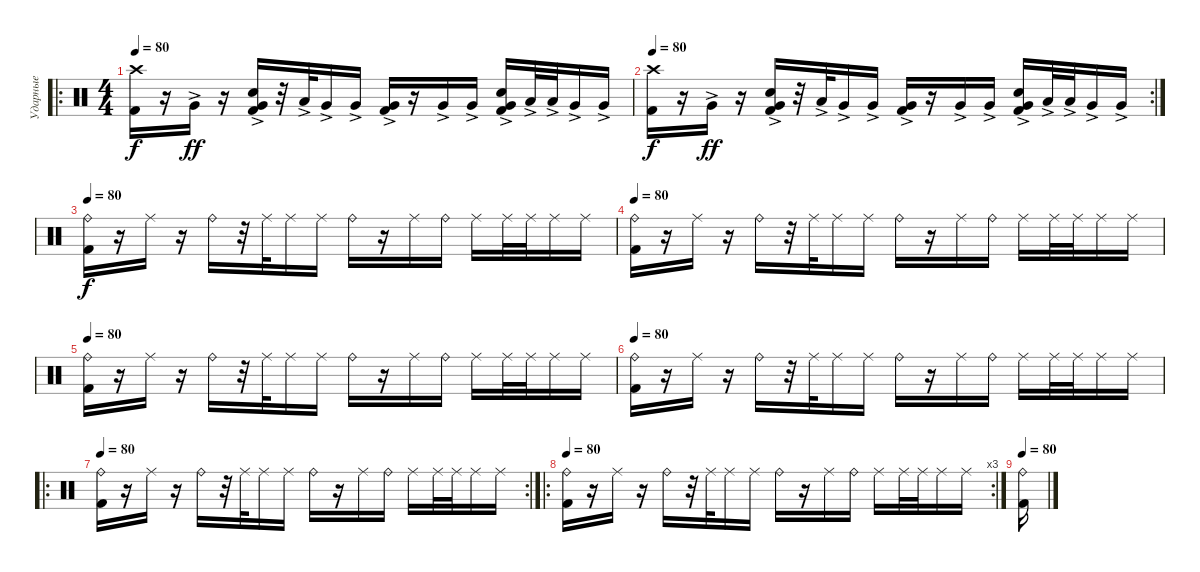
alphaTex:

\track ("Ударные" "Ударные") {instrument percussion}
\staff {score}
\articulation defaults
\ro
\ts (4 4)
\tempo 80
\clef neutral
\ks c
("Crash high (hit)" "Kick (hit) 2").16{dy f} r.16 "Very Low Tom (hit)"{ac}.16{dy ff} r.16 ("Very Low Tom (hit)"{ac} "Electric Snare (hit)" "Kick (hit) 2").16 r.32 "Low Tom (hit)"{ac}.32 "Very Low Tom (hit)"{ac}.16 "Very Low Tom (hit)"{ac}.16 ("Very Low Tom (hit)"{ac} "Kick (hit) 2").16 r.16 "Very Low Tom (hit)"{ac}.16 "Very Low Tom (hit)"{ac}.16 ("Very Low Tom (hit)"{ac} "Electric Snare (hit)" "Kick (hit) 2").16 "Low Tom (hit)"{ac}.32 "Low Tom (hit)"{ac}.32 "Very Low Tom (hit)"{ac}.16 "Very Low Tom (hit)"{ac}.16 |
\rc 2
\tempo 80
("Crash high (hit)" "Kick (hit) 2").16{dy f} r.16 "Very Low Tom (hit)"{ac}.16{dy ff} r.16 ("Very Low Tom (hit)"{ac} "Electric Snare (hit)" "Kick (hit) 2").16 r.32 "Low Tom (hit)"{ac}.32 "Very Low Tom (hit)"{ac}.16 "Very Low Tom (hit)"{ac}.16 ("Very Low Tom (hit)"{ac} "Kick (hit) 2").16 r.16 "Very Low Tom (hit)"{ac}.16 "Very Low Tom (hit)"{ac}.16 ("Very Low Tom (hit)"{ac} "Electric Snare (hit)" "Kick (hit) 2").16 "Low Tom (hit)"{ac}.32 "Low Tom (hit)"{ac}.32 "Very Low Tom (hit)"{ac}.16 "Very Low Tom (hit)"{ac}.16 |
\tempo 80
("Ride (bell)" "Kick (hit) 2").16{dy f} r.16 "Ride (middle)".16 r.16 "Ride (bell)".16 r.32 "Ride (middle)".32 "Ride (middle)".16 "Ride (middle)".16 "Ride (bell)".16 r.16 "Ride (middle)".16 "Ride (bell)".16 "Ride (middle)".16 "Ride (middle)".32 "Ride (middle)".32 "Ride (middle)".16 "Ride (middle)".16 |
\tempo 80
("Ride (bell)" "Kick (hit) 2").16 r.16 "Ride (middle)".16 r.16 "Ride (bell)".16 r.32 "Ride (middle)".32 "Ride (middle)".16 "Ride (middle)".16 "Ride (bell)".16 r.16 "Ride (middle)".16 "Ride (bell)".16 "Ride (middle)".16 "Ride (middle)".32 "Ride (middle)".32 "Ride (middle)".16 "Ride (middle)".16 |
\tempo 80
("Ride (bell)" "Kick (hit) 2").16 r.16 "Ride (middle)".16 r.16 "Ride (bell)".16 r.32 "Ride (middle)".32 "Ride (middle)".16 "Ride (middle)".16 "Ride (bell)".16 r.16 "Ride (middle)".16 "Ride (bell)".16 "Ride (middle)".16 "Ride (middle)".32 "Ride (middle)".32 "Ride (middle)".16 "Ride (middle)".16 |
\tempo 80
("Ride (bell)" "Kick (hit) 2").16 r.16 "Ride (middle)".16 r.16 "Ride (bell)".16 r.32 "Ride (middle)".32 "Ride (middle)".16 "Ride (middle)".16 "Ride (bell)".16 r.16 "Ride (middle)".16 "Ride (bell)".16 "Ride (middle)".16 "Ride (middle)".32 "Ride (middle)".32 "Ride (middle)".16 "Ride (middle)".16 |
\ro
\rc 2
\tempo 80
("Ride (bell)" "Kick (hit) 2").16 r.16 "Ride (middle)".16 r.16 "Ride (bell)".16 r.32 "Ride (middle)".32 "Ride (middle)".16 "Ride (middle)".16 "Ride (bell)".16 r.16 "Ride (middle)".16 "Ride (bell)".16 "Ride (middle)".16 "Ride (middle)".32 "Ride (middle)".32 "Ride (middle)".16 "Ride (middle)".16 |
\ro
\rc 3
\tempo 80
("Ride (bell)" "Kick (hit) 2").16 r.16 "Ride (middle)".16 r.16 "Ride (bell)".16 r.32 "Ride (middle)".32 "Ride (middle)".16 "Ride (middle)".16 "Ride (bell)".16 r.16 "Ride (middle)".16 "Ride (bell)".16 "Ride (middle)".16 "Ride (middle)".32 "Ride (middle)".32 "Ride (middle)".16 "Ride (middle)".16 |
\tempo 80
("Ride (bell)" "Kick (hit) 2").16
